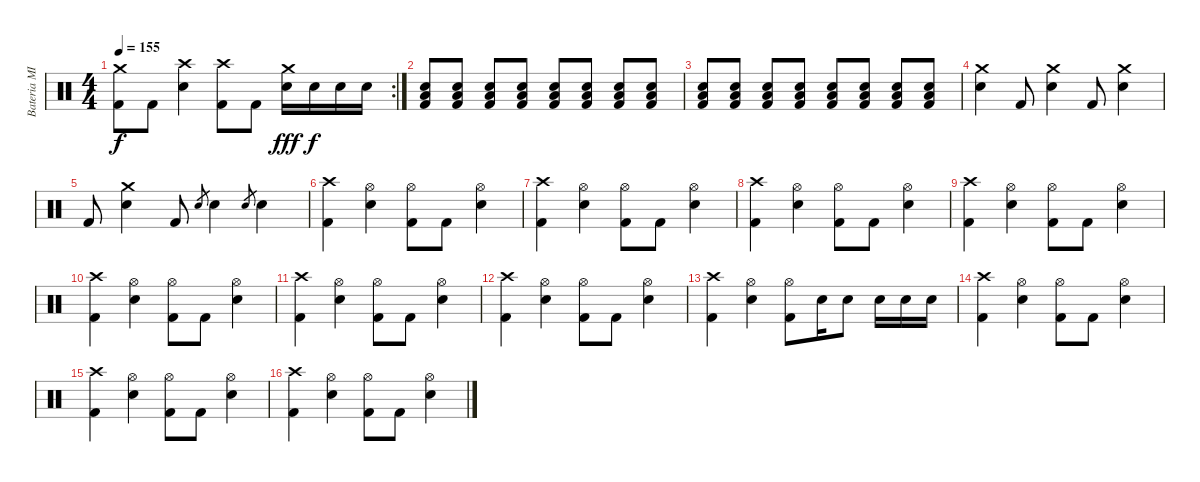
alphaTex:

\track ("Bateria MIDI" "Bateria MI") {instrument percussion bank 1}
\staff {score}
\articulation defaults
\rc 2
\ts (4 4)
\tempo 155
\clef neutral
\ks c
("Crash medium (hit)" "Kick (hit) 2").8{dy f} "Kick (hit) 2".8 ("Crash high (hit)" "Snare (hit) 2").4 ("Crash high (hit)" "Kick (hit) 2").8 "Kick (hit) 2".8 ("Crash medium (hit)" "Snare (hit) 2").16{dy fff} "Snare (hit) 2".16{dy f} "Snare (hit) 2".16 "Snare (hit) 2".16 |
("Low Floor Tom (hit)" "Snare (hit) 2" "Kick (hit) 2").8{volume 8} ("Low Floor Tom (hit)" "Snare (hit) 2" "Kick (hit) 2").8 ("Low Floor Tom (hit)" "Snare (hit) 2" "Kick (hit) 2").8 ("Low Floor Tom (hit)" "Snare (hit) 2" "Kick (hit) 2").8 ("Low Floor Tom (hit)" "Snare (hit) 2" "Kick (hit) 2").8{volume 10} ("Low Floor Tom (hit)" "Snare (hit) 2" "Kick (hit) 2").8 ("Low Floor Tom (hit)" "Snare (hit) 2" "Kick (hit) 2").8 ("Low Floor Tom (hit)" "Snare (hit) 2" "Kick (hit) 2").8 |
("Low Floor Tom (hit)" "Snare (hit) 2" "Kick (hit) 2").8{volume 12} ("Low Floor Tom (hit)" "Snare (hit) 2" "Kick (hit) 2").8 ("Low Floor Tom (hit)" "Snare (hit) 2" "Kick (hit) 2").8 ("Low Floor Tom (hit)" "Snare (hit) 2" "Kick (hit) 2").8 ("Low Floor Tom (hit)" "Snare (hit) 2" "Kick (hit) 2").8{volume 16} ("Low Floor Tom (hit)" "Snare (hit) 2" "Kick (hit) 2").8 ("Low Floor Tom (hit)" "Snare (hit) 2" "Kick (hit) 2").8 ("Low Floor Tom (hit)" "Snare (hit) 2" "Kick (hit) 2").8 |
("Crash medium (hit)" "Snare (hit) 2").4 "Kick (hit) 2".8 ("Crash medium (hit)" "Snare (hit) 2").4 "Kick (hit) 2".8 ("Crash medium (hit)" "Snare (hit) 2").4 |
"Kick (hit) 2".8 ("Crash medium (hit)" "Snare (hit) 2").4 "Kick (hit) 2".8 "Snare (hit) 2".8{gr} "Snare (hit) 2".4 "Snare (hit) 2".8{gr} "Snare (hit) 2".4 |
("Crash high (hit)" "Kick (hit) 2").4 ("Hi-Hat (open)" "Snare (hit) 2").4 ("Hi-Hat (open)" "Kick (hit) 2").8 "Kick (hit) 2".8 ("Hi-Hat (open)" "Snare (hit) 2").4 |
("Crash high (hit)" "Kick (hit) 2").4 ("Hi-Hat (open)" "Snare (hit) 2").4 ("Hi-Hat (open)" "Kick (hit) 2").8 "Kick (hit) 2".8 ("Hi-Hat (open)" "Snare (hit) 2").4 |
("Crash high (hit)" "Kick (hit) 2").4 ("Hi-Hat (open)" "Snare (hit) 2").4 ("Hi-Hat (open)" "Kick (hit) 2").8 "Kick (hit) 2".8 ("Hi-Hat (open)" "Snare (hit) 2").4 |
("Crash high (hit)" "Kick (hit) 2").4 ("Hi-Hat (open)" "Snare (hit) 2").4 ("Hi-Hat (open)" "Kick (hit) 2").8 "Kick (hit) 2".8 ("Hi-Hat (open)" "Snare (hit) 2").4 |
("Crash high (hit)" "Kick (hit) 2").4 ("Hi-Hat (open)" "Snare (hit) 2").4 ("Hi-Hat (open)" "Kick (hit) 2").8 "Kick (hit) 2".8 ("Hi-Hat (open)" "Snare (hit) 2").4 |
("Crash high (hit)" "Kick (hit) 2").4 ("Hi-Hat (open)" "Snare (hit) 2").4 ("Hi-Hat (open)" "Kick (hit) 2").8 "Kick (hit) 2".8 ("Hi-Hat (open)" "Snare (hit) 2").4 |
("Crash high (hit)" "Kick (hit) 2").4 ("Hi-Hat (open)" "Snare (hit) 2").4 ("Hi-Hat (open)" "Kick (hit) 2").8 "Kick (hit) 2".8 ("Hi-Hat (open)" "Snare (hit) 2").4 |
("Crash high (hit)" "Kick (hit) 2").4 ("Hi-Hat (open)" "Snare (hit) 2").4 ("Hi-Hat (open)" "Kick (hit) 2").8 "Snare (hit) 2".16 "Snare (hit) 2".8 "Snare (hit) 2".16 "Snare (hit) 2".16 "Snare (hit) 2".16 |
("Crash high (hit)" "Kick (hit) 2").4 ("Hi-Hat (open)" "Snare (hit) 2").4 ("Hi-Hat (open)" "Kick (hit) 2").8 "Kick (hit) 2".8 ("Hi-Hat (open)" "Snare (hit) 2").4 |
("Crash high (hit)" "Kick (hit) 2").4 ("Hi-Hat (open)" "Snare (hit) 2").4 ("Hi-Hat (open)" "Kick (hit) 2").8 "Kick (hit) 2".8 ("Hi-Hat (open)" "Snare (hit) 2").4 |
("Crash high (hit)" "Kick (hit) 2").4 ("Hi-Hat (open)" "Snare (hit) 2").4 ("Hi-Hat (open)" "Kick (hit) 2").8 "Kick (hit) 2".8 ("Hi-Hat (open)" "Snare (hit) 2").4
